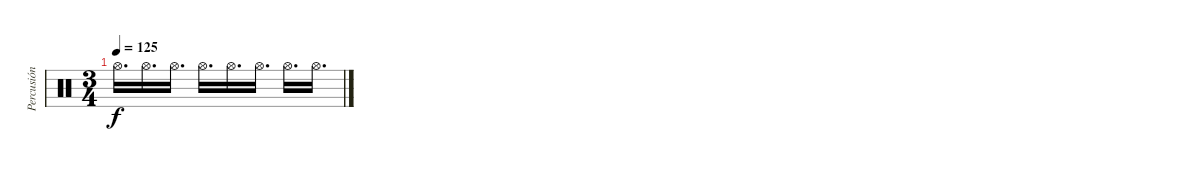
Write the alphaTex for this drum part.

\track ("Percusión" "Percusión") {instrument percussion}
\staff {score}
\articulation defaults
\ts (3 4)
\tempo 125
\clef neutral
\ks c "Hi-Hat (open)".16{d dy f} "Hi-Hat (open)".16{d} "Hi-Hat (open)".16{d} "Hi-Hat (open)".16{d} "Hi-Hat (open)".16{d} "Hi-Hat (open)".16{d} "Hi-Hat (open)".16{d} "Hi-Hat (open)".16{d}
